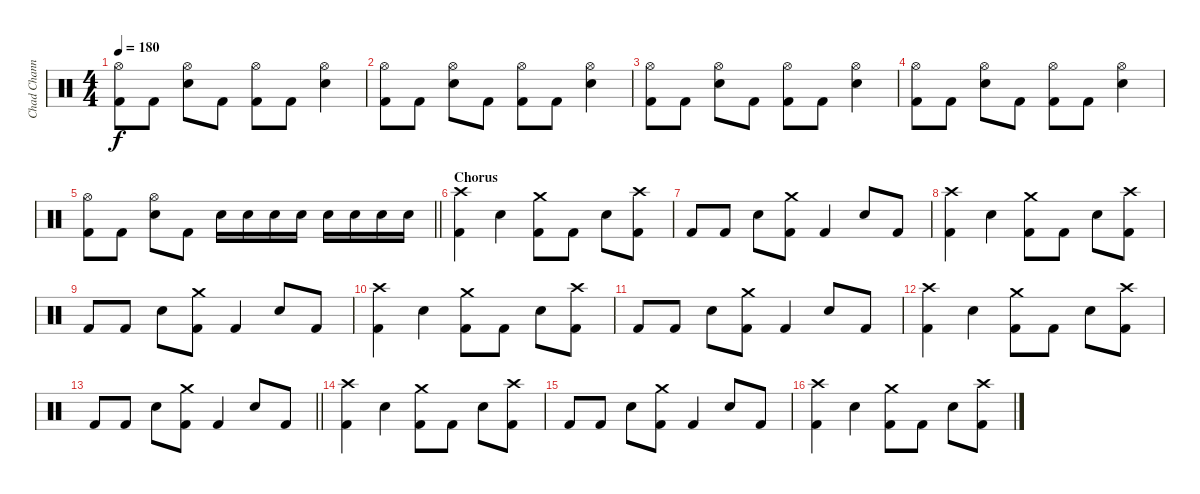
\track ("Chad Channing" "Chad Chann") {instrument percussion}
\staff {score}
\articulation defaults
\ts (4 4)
\tempo 180
\clef neutral
\ks c
("Hi-Hat (open)" "Kick (hit) 2").8{dy f} "Kick (hit) 2".8 ("Hi-Hat (open)" "Snare (hit) 2").8 "Kick (hit) 2".8 ("Hi-Hat (open)" "Kick (hit) 2").8 "Kick (hit) 2".8 ("Hi-Hat (open)" "Snare (hit) 2").4 |
("Hi-Hat (open)" "Kick (hit) 2").8 "Kick (hit) 2".8 ("Hi-Hat (open)" "Snare (hit) 2").8 "Kick (hit) 2".8 ("Hi-Hat (open)" "Kick (hit) 2").8 "Kick (hit) 2".8 ("Hi-Hat (open)" "Snare (hit) 2").4 |
("Hi-Hat (open)" "Kick (hit) 2").8 "Kick (hit) 2".8 ("Hi-Hat (open)" "Snare (hit) 2").8 "Kick (hit) 2".8 ("Hi-Hat (open)" "Kick (hit) 2").8 "Kick (hit) 2".8 ("Hi-Hat (open)" "Snare (hit) 2").4 |
("Hi-Hat (open)" "Kick (hit) 2").8 "Kick (hit) 2".8 ("Hi-Hat (open)" "Snare (hit) 2").8 "Kick (hit) 2".8 ("Hi-Hat (open)" "Kick (hit) 2").8 "Kick (hit) 2".8 ("Hi-Hat (open)" "Snare (hit) 2").4 |
\barLineRight lightlight
("Hi-Hat (open)" "Kick (hit) 2").8 "Kick (hit) 2".8 ("Hi-Hat (open)" "Snare (hit) 2").8 "Kick (hit) 2".8 "Snare (hit) 2".16 "Snare (hit) 2".16 "Snare (hit) 2".16 "Snare (hit) 2".16 "Snare (hit) 2".16 "Snare (hit) 2".16 "Snare (hit) 2".16 "Snare (hit) 2".16 |
\section ("" "Chorus")
("Crash high (hit)" "Kick (hit) 2").4 "Snare (hit) 2".4 ("Crash medium (hit)" "Kick (hit) 2").8 "Kick (hit) 2".8 "Snare (hit) 2".8 ("Crash high (hit)" "Kick (hit) 2").8 |
"Kick (hit) 2".8 "Kick (hit) 2".8 "Snare (hit) 2".8 ("Crash medium (hit)" "Kick (hit) 2").8 "Kick (hit) 2".4 "Snare (hit) 2".8 "Kick (hit) 2".8 |
("Crash high (hit)" "Kick (hit) 2").4 "Snare (hit) 2".4 ("Crash medium (hit)" "Kick (hit) 2").8 "Kick (hit) 2".8 "Snare (hit) 2".8 ("Crash high (hit)" "Kick (hit) 2").8 |
"Kick (hit) 2".8 "Kick (hit) 2".8 "Snare (hit) 2".8 ("Crash medium (hit)" "Kick (hit) 2").8 "Kick (hit) 2".4 "Snare (hit) 2".8 "Kick (hit) 2".8 |
("Crash high (hit)" "Kick (hit) 2").4 "Snare (hit) 2".4 ("Crash medium (hit)" "Kick (hit) 2").8 "Kick (hit) 2".8 "Snare (hit) 2".8 ("Crash high (hit)" "Kick (hit) 2").8 |
"Kick (hit) 2".8 "Kick (hit) 2".8 "Snare (hit) 2".8 ("Crash medium (hit)" "Kick (hit) 2").8 "Kick (hit) 2".4 "Snare (hit) 2".8 "Kick (hit) 2".8 |
("Crash high (hit)" "Kick (hit) 2").4 "Snare (hit) 2".4 ("Crash medium (hit)" "Kick (hit) 2").8 "Kick (hit) 2".8 "Snare (hit) 2".8 ("Crash high (hit)" "Kick (hit) 2").8 |
\barLineRight lightlight "Kick (hit) 2".8 "Kick (hit) 2".8 "Snare (hit) 2".8
("Crash medium (hit)" "Kick (hit) 2").8 "Kick (hit) 2".4 "Snare (hit) 2".8 "Kick (hit) 2".8 |
("Crash high (hit)" "Kick (hit) 2").4 "Snare (hit) 2".4 ("Crash medium (hit)" "Kick (hit) 2").8 "Kick (hit) 2".8 "Snare (hit) 2".8 ("Crash high (hit)" "Kick (hit) 2").8 |
"Kick (hit) 2".8 "Kick (hit) 2".8 "Snare (hit) 2".8 ("Crash medium (hit)" "Kick (hit) 2").8 "Kick (hit) 2".4 "Snare (hit) 2".8 "Kick (hit) 2".8 |
("Crash high (hit)" "Kick (hit) 2").4 "Snare (hit) 2".4 ("Crash medium (hit)" "Kick (hit) 2").8 "Kick (hit) 2".8 "Snare (hit) 2".8 ("Crash high (hit)" "Kick (hit) 2").8
